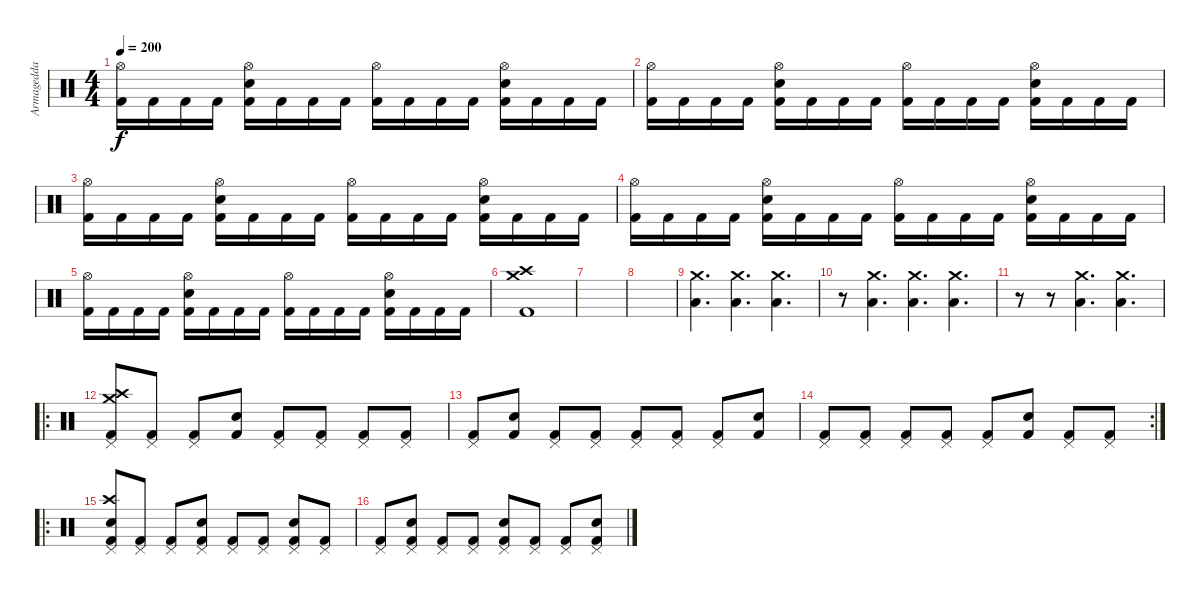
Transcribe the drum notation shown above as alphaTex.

\track ("Armagedda" "Armagedda") {instrument percussion}
\staff {score}
\articulation defaults
\ts (4 4)
\tempo 200
\clef neutral
\ks c
("Hi-Hat (open)" "Kick (hit) 2").16{dy f} "Kick (hit) 2".16 "Kick (hit) 2".16 "Kick (hit) 2".16 ("Hi-Hat (open)" "Electric Snare (hit)" "Kick (hit) 2").16 "Kick (hit) 2".16 "Kick (hit) 2".16 "Kick (hit) 2".16 ("Hi-Hat (open)" "Kick (hit) 2").16 "Kick (hit) 2".16 "Kick (hit) 2".16 "Kick (hit) 2".16 ("Hi-Hat (open)" "Electric Snare (hit)" "Kick (hit) 2").16 "Kick (hit) 2".16 "Kick (hit) 2".16 "Kick (hit) 2".16 |
("Hi-Hat (open)" "Kick (hit) 2").16 "Kick (hit) 2".16 "Kick (hit) 2".16 "Kick (hit) 2".16 ("Hi-Hat (open)" "Electric Snare (hit)" "Kick (hit) 2").16 "Kick (hit) 2".16 "Kick (hit) 2".16 "Kick (hit) 2".16 ("Hi-Hat (open)" "Kick (hit) 2").16 "Kick (hit) 2".16 "Kick (hit) 2".16 "Kick (hit) 2".16 ("Hi-Hat (open)" "Electric Snare (hit)" "Kick (hit) 2").16 "Kick (hit) 2".16 "Kick (hit) 2".16 "Kick (hit) 2".16 |
("Hi-Hat (open)" "Kick (hit) 2").16 "Kick (hit) 2".16 "Kick (hit) 2".16 "Kick (hit) 2".16 ("Hi-Hat (open)" "Electric Snare (hit)" "Kick (hit) 2").16 "Kick (hit) 2".16 "Kick (hit) 2".16 "Kick (hit) 2".16 ("Hi-Hat (open)" "Kick (hit) 2").16 "Kick (hit) 2".16 "Kick (hit) 2".16 "Kick (hit) 2".16 ("Hi-Hat (open)" "Electric Snare (hit)" "Kick (hit) 2").16 "Kick (hit) 2".16 "Kick (hit) 2".16 "Kick (hit) 2".16 |
("Hi-Hat (open)" "Kick (hit) 2").16 "Kick (hit) 2".16 "Kick (hit) 2".16 "Kick (hit) 2".16 ("Hi-Hat (open)" "Electric Snare (hit)" "Kick (hit) 2").16 "Kick (hit) 2".16 "Kick (hit) 2".16 "Kick (hit) 2".16 ("Hi-Hat (open)" "Kick (hit) 2").16 "Kick (hit) 2".16 "Kick (hit) 2".16 "Kick (hit) 2".16 ("Hi-Hat (open)" "Electric Snare (hit)" "Kick (hit) 2").16 "Kick (hit) 2".16 "Kick (hit) 2".16 "Kick (hit) 2".16 |
("Hi-Hat (open)" "Kick (hit) 2").16 "Kick (hit) 2".16 "Kick (hit) 2".16 "Kick (hit) 2".16 ("Hi-Hat (open)" "Electric Snare (hit)" "Kick (hit) 2").16 "Kick (hit) 2".16 "Kick (hit) 2".16 "Kick (hit) 2".16 ("Hi-Hat (open)" "Kick (hit) 2").16 "Kick (hit) 2".16 "Kick (hit) 2".16 "Kick (hit) 2".16 ("Hi-Hat (open)" "Electric Snare (hit)" "Kick (hit) 2").16 "Kick (hit) 2".16 "Kick (hit) 2".16 "Kick (hit) 2".16 |
("Crash medium (hit)" "Crash high (hit)" "Kick (hit) 2").1 |
|
|
("Low Tom (hit)" "Crash medium (hit)").4{d} ("Low Tom (hit)" "Crash medium (hit)").4{d} ("Low Tom (hit)" "Crash medium (hit)").4{d} |
r.8 ("Low Tom (hit)" "Crash medium (hit)").4{d} ("Low Tom (hit)" "Crash medium (hit)").4{d} ("Low Tom (hit)" "Crash medium (hit)").4{d} |
r.8 r.8 ("Low Tom (hit)" "Crash medium (hit)").4{d} ("Low Tom (hit)" "Crash medium (hit)").4{d} |
\ro
("Crash medium (hit)" "Crash high (hit)" "Pedal Hi-Hat (hit)" "Kick (hit) 2").8 ("Pedal Hi-Hat (hit)" "Kick (hit) 2").8 ("Pedal Hi-Hat (hit)" "Kick (hit) 2").8 ("Electric Snare (hit)" "Kick (hit) 2").8 ("Pedal Hi-Hat (hit)" "Kick (hit) 2").8 ("Pedal Hi-Hat (hit)" "Kick (hit) 2").8 ("Pedal Hi-Hat (hit)" "Kick (hit) 2").8 ("Pedal Hi-Hat (hit)" "Kick (hit) 2").8 |
("Pedal Hi-Hat (hit)" "Kick (hit) 2").8 ("Electric Snare (hit)" "Kick (hit) 2").8 ("Pedal Hi-Hat (hit)" "Kick (hit) 2").8 ("Pedal Hi-Hat (hit)" "Kick (hit) 2").8 ("Pedal Hi-Hat (hit)" "Kick (hit) 2").8 ("Pedal Hi-Hat (hit)" "Kick (hit) 2").8 ("Pedal Hi-Hat (hit)" "Kick (hit) 2").8 ("Electric Snare (hit)" "Kick (hit) 2").8 |
\rc 2
("Pedal Hi-Hat (hit)" "Kick (hit) 2").8 ("Pedal Hi-Hat (hit)" "Kick (hit) 2").8 ("Pedal Hi-Hat (hit)" "Kick (hit) 2").8 ("Pedal Hi-Hat (hit)" "Kick (hit) 2").8 ("Pedal Hi-Hat (hit)" "Kick (hit) 2").8 ("Electric Snare (hit)" "Kick (hit) 2").8 ("Pedal Hi-Hat (hit)" "Kick (hit) 2").8 ("Pedal Hi-Hat (hit)" "Kick (hit) 2").8 |
\ro
("Crash high (hit)" "Pedal Hi-Hat (hit)" "Electric Snare (hit)" "Kick (hit) 2").8 ("Pedal Hi-Hat (hit)" "Kick (hit) 2").8 ("Pedal Hi-Hat (hit)" "Kick (hit) 2").8 ("Pedal Hi-Hat (hit)" "Electric Snare (hit)" "Kick (hit) 2").8 ("Pedal Hi-Hat (hit)" "Kick (hit) 2").8 ("Pedal Hi-Hat (hit)" "Kick (hit) 2").8 ("Pedal Hi-Hat (hit)" "Electric Snare (hit)" "Kick (hit) 2").8 ("Pedal Hi-Hat (hit)" "Kick (hit) 2").8 |
("Pedal Hi-Hat (hit)" "Kick (hit) 2").8 ("Pedal Hi-Hat (hit)" "Electric Snare (hit)" "Kick (hit) 2").8 ("Pedal Hi-Hat (hit)" "Kick (hit) 2").8 ("Pedal Hi-Hat (hit)" "Kick (hit) 2").8 ("Pedal Hi-Hat (hit)" "Electric Snare (hit)" "Kick (hit) 2").8 ("Pedal Hi-Hat (hit)" "Kick (hit) 2").8 ("Pedal Hi-Hat (hit)" "Kick (hit) 2").8 ("Pedal Hi-Hat (hit)" "Electric Snare (hit)" "Kick (hit) 2").8
